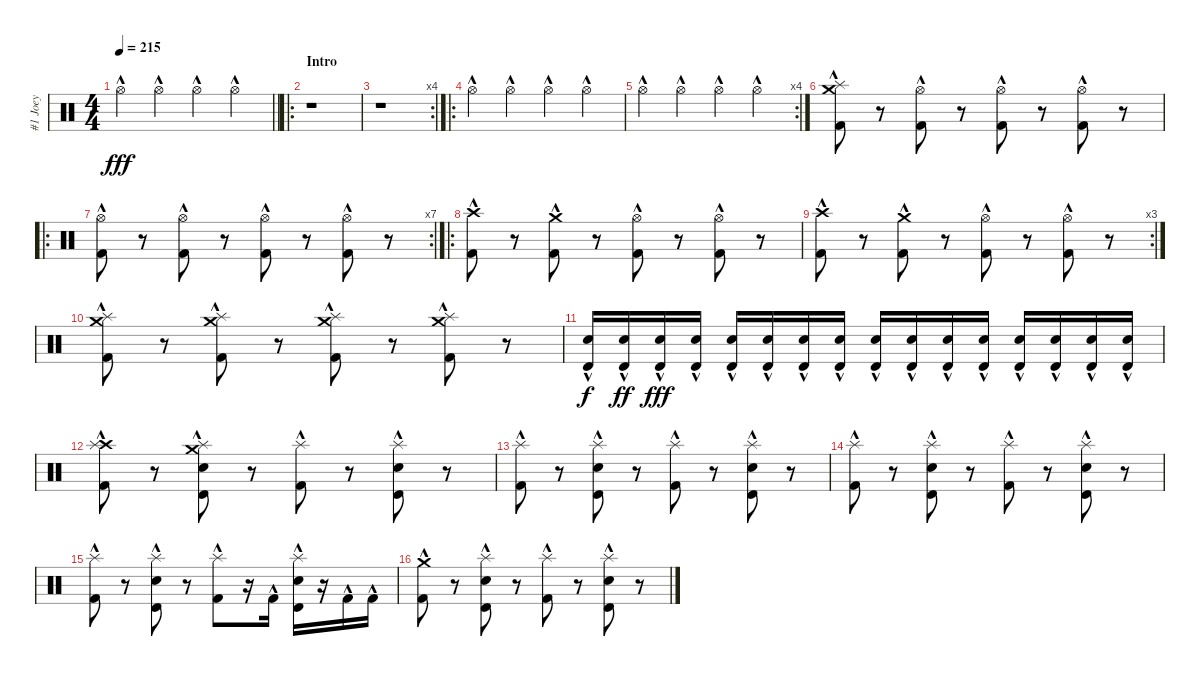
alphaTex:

\track ("#1 Joey" "#1 Joey") {instrument percussion}
\staff {score}
\articulation defaults
\ts (4 4)
\tempo 215
\clef neutral
\barLineRight lightlight
\ks c "Hi-Hat (open)"{hac}.4{dy fff} "Hi-Hat (open)"{hac}.4 "Hi-Hat (open)"{hac}.4 "Hi-Hat (open)"{hac}.4
|
\ro
\section ("" "Intro")
r.1 |
\rc 4
r.1 |
\ro "Hi-Hat (open)"{hac}.4 "Hi-Hat (open)"{hac}.4 "Hi-Hat (open)"{hac}.4 "Hi-Hat (open)"{hac}.4
|
\rc 4 "Hi-Hat (open)"{hac}.4 "Hi-Hat (open)"{hac}.4 "Hi-Hat (open)"{hac}.4 "Hi-Hat (open)"{hac}.4
|
("Crash medium (hit)"{hac} "Splash (hit)"{hac} "Kick (hit) 2"{hac}).8 r.8 ("Hi-Hat (open)"{hac} "Kick (hit) 2"{hac}).8 r.8 ("Hi-Hat (open)"{hac} "Kick (hit) 2"{hac}).8 r.8 ("Hi-Hat (open)"{hac} "Kick (hit) 2"{hac}).8 r.8 |
\ro
\rc 7
("Hi-Hat (open)"{hac} "Kick (hit) 2"{hac}).8 r.8 ("Hi-Hat (open)"{hac} "Kick (hit) 2"{hac}).8 r.8 ("Hi-Hat (open)"{hac} "Kick (hit) 2"{hac}).8 r.8 ("Hi-Hat (open)"{hac} "Kick (hit) 2"{hac}).8 r.8 |
\ro
("Crash high (hit)"{hac} "Kick (hit) 2"{hac}).8 r.8 ("Crash medium (hit)"{hac} "Kick (hit) 2"{hac}).8 r.8 ("Hi-Hat (open)"{hac} "Kick (hit) 2"{hac}).8 r.8 ("Hi-Hat (open)"{hac} "Kick (hit) 2"{hac}).8 r.8 |
\rc 3
("Crash high (hit)"{hac} "Kick (hit) 2"{hac}).8 r.8 ("Crash medium (hit)"{hac} "Kick (hit) 2"{hac}).8 r.8 ("Hi-Hat (open)"{hac} "Kick (hit) 2"{hac}).8 r.8 ("Hi-Hat (open)"{hac} "Kick (hit) 2"{hac}).8 r.8 |
("Splash (hit)"{hac} "Crash medium (hit)"{hac} "Kick (hit) 2"{hac}).8 r.8 ("Splash (hit)"{hac} "Crash medium (hit)"{hac} "Kick (hit) 2"{hac}).8 r.8 ("Splash (hit)"{hac} "Crash medium (hit)"{hac} "Kick (hit) 2"{hac}).8 r.8 ("Splash (hit)"{hac} "Crash medium (hit)"{hac} "Kick (hit) 2"{hac}).8 r.8 |
("Timbale high (hit)"{hac} "Electric Snare (hit)"{hac}).16{dy f} ("Timbale high (hit)"{hac} "Electric Snare (hit)"{hac}).16{dy ff} ("Timbale high (hit)"{hac} "Electric Snare (hit)"{hac}).16{dy fff} ("Timbale high (hit)"{hac} "Electric Snare (hit)"{hac}).16 ("Timbale high (hit)"{hac} "Electric Snare (hit)"{hac}).16 ("Timbale high (hit)"{hac} "Electric Snare (hit)"{hac}).16 ("Timbale high (hit)"{hac} "Electric Snare (hit)"{hac}).16 ("Timbale high (hit)"{hac} "Electric Snare (hit)"{hac}).16 ("Timbale high (hit)"{hac} "Electric Snare (hit)"{hac}).16 ("Timbale high (hit)"{hac} "Electric Snare (hit)"{hac}).16 ("Timbale high (hit)"{hac} "Electric Snare (hit)"{hac}).16 ("Timbale high (hit)"{hac} "Electric Snare (hit)"{hac}).16 ("Timbale high (hit)"{hac} "Electric Snare (hit)"{hac}).16 ("Timbale high (hit)"{hac} "Electric Snare (hit)"{hac}).16 ("Timbale high (hit)"{hac} "Electric Snare (hit)"{hac}).16 ("Timbale high (hit)"{hac} "Electric Snare (hit)"{hac}).16 |
("Crash high (hit)"{hac} "Splash (hit)"{hac} "Kick (hit) 2"{hac}).8 r.8 ("Crash medium (hit)"{hac} "Splash (hit)"{hac} "Timbale high (hit)"{hac} "Electric Snare (hit)"{hac}).8 r.8 ("Splash (hit)"{hac} "Kick (hit) 2"{hac}).8 r.8 ("Splash (hit)"{hac} "Timbale high (hit)"{hac} "Electric Snare (hit)"{hac}).8 r.8 |
("Splash (hit)"{hac} "Kick (hit) 2"{hac}).8 r.8 ("Splash (hit)"{hac} "Timbale high (hit)"{hac} "Electric Snare (hit)"{hac}).8 r.8 ("Splash (hit)"{hac} "Kick (hit) 2"{hac}).8 r.8 ("Splash (hit)"{hac} "Timbale high (hit)"{hac} "Electric Snare (hit)"{hac}).8 r.8 |
("Splash (hit)"{hac} "Kick (hit) 2"{hac}).8 r.8 ("Splash (hit)"{hac} "Timbale high (hit)"{hac} "Electric Snare (hit)"{hac}).8 r.8 ("Splash (hit)"{hac} "Kick (hit) 2"{hac}).8 r.8 ("Splash (hit)"{hac} "Timbale high (hit)"{hac} "Electric Snare (hit)"{hac}).8 r.8 |
("Splash (hit)"{hac} "Kick (hit) 2"{hac}).8 r.8 ("Splash (hit)"{hac} "Timbale high (hit)"{hac} "Electric Snare (hit)"{hac}).8 r.8 ("Splash (hit)"{hac} "Kick (hit) 2"{hac}).8 r.16 "Kick (hit) 2"{hac}.16 ("Splash (hit)"{hac} "Timbale high (hit)"{hac} "Electric Snare (hit)"{hac}).16 r.16 "Kick (hit) 2"{hac}.16 "Kick (hit) 2"{hac}.16 |
("Crash medium (hit)"{hac} "Kick (hit) 2"{hac}).8 r.8 ("Splash (hit)"{hac} "Timbale high (hit)"{hac} "Electric Snare (hit)"{hac}).8 r.8 ("Splash (hit)"{hac} "Kick (hit) 2"{hac}).8 r.8 ("Splash (hit)"{hac} "Timbale high (hit)"{hac} "Electric Snare (hit)"{hac}).8 r.8
